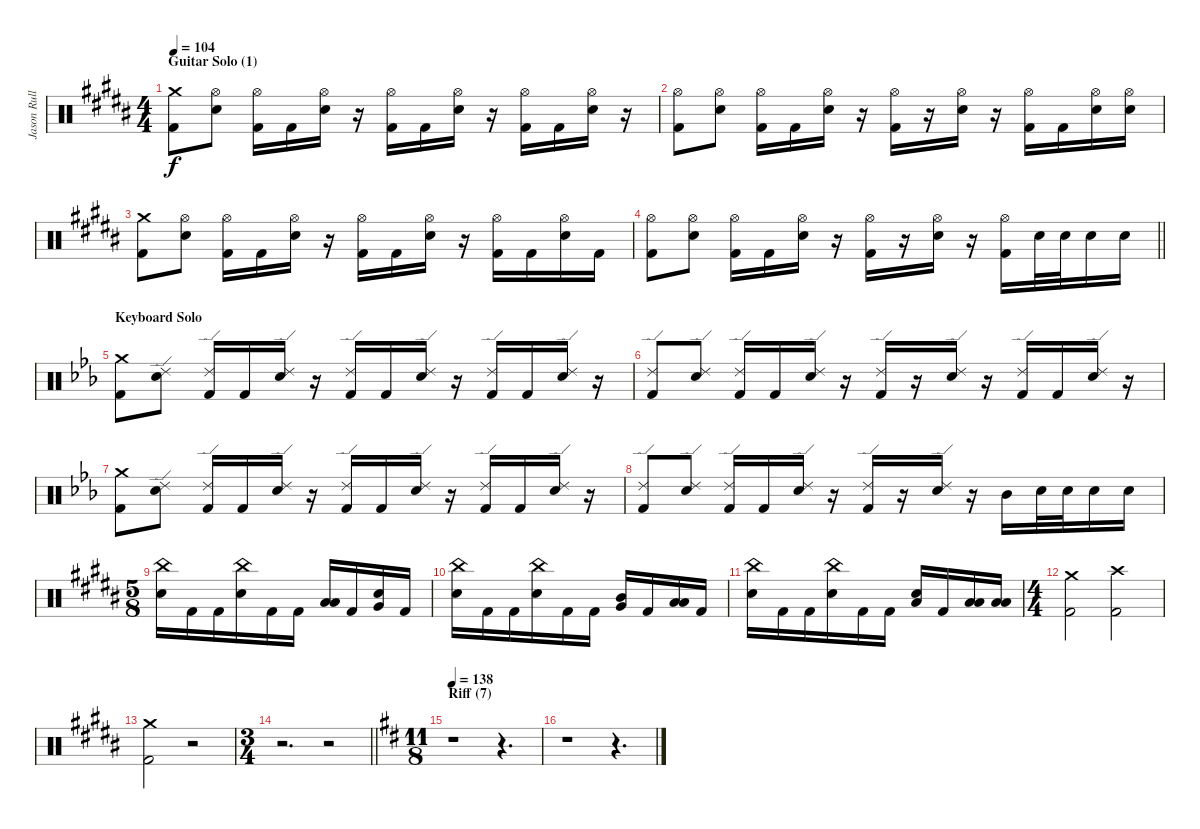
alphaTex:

\track ("Jason Rullo (drums)" "Jason Rull") {instrument percussion}
\staff {score}
\articulation defaults
\ts (4 4)
\section ("" "Guitar Solo (1)")
\tempo 104
\clef neutral
\ks b
("Crash medium (hit)" "Kick (hit) 2").8{dy f volume 15 balance 8} ("Hi-Hat (open)" "Electric Snare (hit)").8 ("Hi-Hat (open)" "Kick (hit) 2").16 "Kick (hit) 2".16 ("Hi-Hat (open)" "Electric Snare (hit)").16 r.16 ("Hi-Hat (open)" "Kick (hit) 2").16 "Kick (hit) 2".16 ("Hi-Hat (open)" "Electric Snare (hit)").16 r.16 ("Hi-Hat (open)" "Kick (hit) 2").16 "Kick (hit) 2".16 ("Hi-Hat (open)" "Electric Snare (hit)").16 r.16 |
("Hi-Hat (open)" "Kick (hit) 2").8 ("Hi-Hat (open)" "Electric Snare (hit)").8 ("Hi-Hat (open)" "Kick (hit) 2").16 "Kick (hit) 2".16 ("Hi-Hat (open)" "Electric Snare (hit)").16 r.16 ("Hi-Hat (open)" "Kick (hit) 2").16 r.16 ("Hi-Hat (open)" "Electric Snare (hit)").16 r.16 ("Hi-Hat (open)" "Kick (hit) 2").16 "Kick (hit) 2".16 ("Hi-Hat (open)" "Electric Snare (hit)").16 ("Hi-Hat (open)" "Electric Snare (hit)").16 |
("Crash medium (hit)" "Kick (hit) 2").8 ("Hi-Hat (open)" "Electric Snare (hit)").8 ("Hi-Hat (open)" "Kick (hit) 2").16 "Kick (hit) 2".16 ("Hi-Hat (open)" "Electric Snare (hit)").16 r.16 ("Hi-Hat (open)" "Kick (hit) 2").16 "Kick (hit) 2".16 ("Hi-Hat (open)" "Electric Snare (hit)").16 r.16 ("Hi-Hat (open)" "Kick (hit) 2").16 "Kick (hit) 2".16 ("Hi-Hat (open)" "Electric Snare (hit)").16 "Kick (hit) 2".16 |
\barLineRight lightlight
("Hi-Hat (open)" "Kick (hit) 2").8 ("Hi-Hat (open)" "Electric Snare (hit)").8 ("Hi-Hat (open)" "Kick (hit) 2").16 "Kick (hit) 2".16 ("Hi-Hat (open)" "Electric Snare (hit)").16 r.16 ("Hi-Hat (open)" "Kick (hit) 2").16 r.16 ("Hi-Hat (open)" "Electric Snare (hit)").16 r.16 ("Hi-Hat (open)" "Kick (hit) 2").16 "Electric Snare (hit)".32 "Electric Snare (hit)".32 "Electric Snare (hit)".16 "Electric Snare (hit)".16 |
\section ("" "Keyboard Solo")
\ks cminor
("Crash medium (hit)" "Kick (hit) 2").8 ("Ride (edge) 2" "Electric Snare (hit)").8 ("Ride (edge) 2" "Kick (hit) 2").16 "Kick (hit) 2".16 ("Ride (edge) 2" "Electric Snare (hit)").16 r.16 ("Ride (edge) 2" "Kick (hit) 2").16 "Kick (hit) 2".16 ("Ride (edge) 2" "Electric Snare (hit)").16 r.16 ("Ride (edge) 2" "Kick (hit) 2").16 "Kick (hit) 2".16 ("Ride (edge) 2" "Electric Snare (hit)").16 r.16 |
("Ride (edge) 2" "Kick (hit) 2").8 ("Ride (edge) 2" "Electric Snare (hit)").8 ("Ride (edge) 2" "Kick (hit) 2").16 "Kick (hit) 2".16 ("Ride (edge) 2" "Electric Snare (hit)").16 r.16 ("Ride (edge) 2" "Kick (hit) 2").16 r.16 ("Ride (edge) 2" "Electric Snare (hit)").16 r.16 ("Ride (edge) 2" "Kick (hit) 2").16 "Kick (hit) 2".16 ("Ride (edge) 2" "Electric Snare (hit)").16 r.16 |
("Crash medium (hit)" "Kick (hit) 2").8 ("Ride (edge) 2" "Electric Snare (hit)").8 ("Ride (edge) 2" "Kick (hit) 2").16 "Kick (hit) 2".16 ("Ride (edge) 2" "Electric Snare (hit)").16 r.16 ("Ride (edge) 2" "Kick (hit) 2").16 "Kick (hit) 2".16 ("Ride (edge) 2" "Electric Snare (hit)").16 r.16 ("Ride (edge) 2" "Kick (hit) 2").16 "Kick (hit) 2".16 ("Ride (edge) 2" "Electric Snare (hit)").16 r.16 |
("Ride (edge) 2" "Kick (hit) 2").8 ("Ride (edge) 2" "Electric Snare (hit)").8 ("Ride (edge) 2" "Kick (hit) 2").16 "Kick (hit) 2".16 ("Ride (edge) 2" "Electric Snare (hit)").16 r.16 ("Ride (edge) 2" "Kick (hit) 2").16 r.16 ("Ride (edge) 2" "Electric Snare (hit)").16 r.16 "Mid Tom (hit)".16 "Electric Snare (hit)".32 "Electric Snare (hit)".32 "Electric Snare (hit)".16 "Electric Snare (hit)".16 |
\ts (5 8)
\ks g#minor
("China (hit)" "Electric Snare (hit)").16 "Kick (hit) 2".16 "Kick (hit) 2".16 ("China (hit)" "Electric Snare (hit)").16 "Kick (hit) 2".16 "Kick (hit) 2".16 ("Low Floor Tom (hit)" "Low Tom (hit)").16 "Kick (hit) 2".16 ("Very Low Tom (hit)" "Electric Snare (hit)").16 "Kick (hit) 2".16 |
("China (hit)" "Electric Snare (hit)").16 "Kick (hit) 2".16 "Kick (hit) 2".16 ("China (hit)" "Electric Snare (hit)").16 "Kick (hit) 2".16 "Kick (hit) 2".16 ("Very Low Tom (hit)" "Mid Tom (hit)").16 "Kick (hit) 2".16 ("Low Floor Tom (hit)" "Low Tom (hit)").16 "Kick (hit) 2".16 |
("China (hit)" "Electric Snare (hit)").16 "Kick (hit) 2".16 "Kick (hit) 2".16 ("China (hit)" "Electric Snare (hit)").16 "Kick (hit) 2".16 "Kick (hit) 2".16 ("Electric Snare (hit)" "Low Tom (hit)").16 "Kick (hit) 2".16 ("Low Floor Tom (hit)" "Low Tom (hit)").16 ("Low Tom (hit)" "Low Floor Tom (hit)").16 |
\ts (4 4)
("Crash medium (hit)" "Kick (hit) 2").2 ("Crash high (hit)" "Kick (hit) 2").2 |
("Crash medium (hit)" "Kick (hit) 2").2 r.2 |
\ts (3 4)
\barLineRight lightlight
r.2{d} r.2 |
\ts (11 8)
\section ("" "Riff (7)")
\tempo 138
\ks bminor
r.1 r.4{d} |
r.1 r.4{d}
